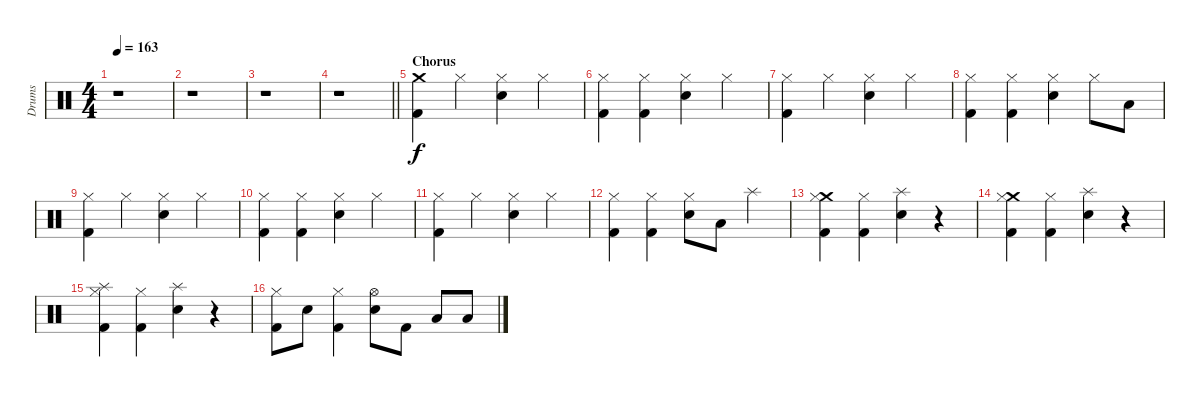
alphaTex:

\track ("Drums" "Drums") {instrument percussion}
\staff {score}
\articulation defaults
\ts (4 4)
\tempo 163
\clef neutral
\ks c
r.1{dy f} |
r.1 |
r.1 |
\barLineRight lightlight
r.1 |
\section ("" "Chorus")
("Crash medium (hit)" "Kick (hit) 2").4 "Hi-Hat (closed)".4 ("Hi-Hat (closed)" "Snare (hit) 2").4 "Hi-Hat (closed)".4 |
("Hi-Hat (closed)" "Kick (hit) 2").4 ("Hi-Hat (closed)" "Kick (hit) 2").4 ("Hi-Hat (closed)" "Snare (hit) 2").4 "Hi-Hat (closed)".4 |
("Hi-Hat (closed)" "Kick (hit) 2").4 "Hi-Hat (closed)".4 ("Hi-Hat (closed)" "Snare (hit) 2").4 "Hi-Hat (closed)".4 |
("Hi-Hat (closed)" "Kick (hit) 2").4 ("Hi-Hat (closed)" "Kick (hit) 2").4 ("Hi-Hat (closed)" "Snare (hit) 2").4 "Hi-Hat (closed)".8 "Low Tom (hit)".8 |
("Hi-Hat (closed)" "Kick (hit) 2").4 "Hi-Hat (closed)".4 ("Hi-Hat (closed)" "Snare (hit) 2").4 "Hi-Hat (closed)".4 |
("Hi-Hat (closed)" "Kick (hit) 2").4 ("Hi-Hat (closed)" "Kick (hit) 2").4 ("Hi-Hat (closed)" "Snare (hit) 2").4 "Hi-Hat (closed)".4 |
("Hi-Hat (closed)" "Kick (hit) 2").4 "Hi-Hat (closed)".4 ("Hi-Hat (closed)" "Snare (hit) 2").4 "Hi-Hat (closed)".4 |
("Hi-Hat (closed)" "Kick (hit) 2").4 ("Hi-Hat (closed)" "Kick (hit) 2").4 ("Hi-Hat (closed)" "Snare (hit) 2").8 "Low Tom (hit)".8 "Splash (hit)".4 |
("Crash medium (hit)" "Kick (hit) 2" "Hi-Hat (closed)").4 ("Kick (hit) 2" "Hi-Hat (closed)").4 ("Splash (hit)" "Snare (hit) 2").4 r.4 |
("Crash medium (hit)" "Kick (hit) 2" "Hi-Hat (closed)").4 ("Kick (hit) 2" "Hi-Hat (closed)").4 ("Splash (hit)" "Snare (hit) 2").4 r.4 |
("Splash (hit)" "Kick (hit) 2" "Hi-Hat (closed)").4 ("Kick (hit) 2" "Hi-Hat (closed)").4 ("Splash (hit)" "Snare (hit) 2").4 r.4 |
("Kick (hit) 2" "Hi-Hat (closed)").8 "Snare (hit) 2".8 ("Kick (hit) 2" "Hi-Hat (closed)").4 ("Hi-Hat (open)" "Snare (hit) 2").8 "Kick (hit) 2".8 "Low Tom (hit)".8 "Low Tom (hit)".8
